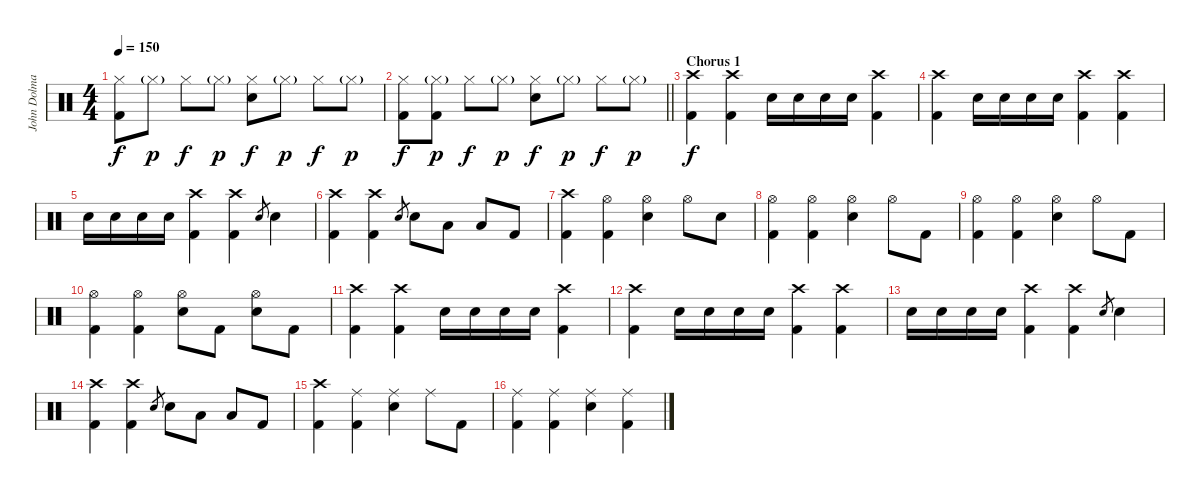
\track ("John Dolmayan(Drums)" "John Dolma") {instrument percussion}
\staff {score}
\articulation defaults
\ts (4 4)
\tempo 150
\clef neutral
\ks c
("Hi-Hat (closed)" "Kick (hit) 2").8{dy f} "Hi-Hat (closed)"{g}.8{dy p} "Hi-Hat (closed)".8{dy f} "Hi-Hat (closed)"{g}.8{dy p} ("Hi-Hat (closed)" "Snare (hit) 2").8{dy f} "Hi-Hat (closed)"{g}.8{dy p} "Hi-Hat (closed)".8{dy f} "Hi-Hat (closed)"{g}.8{dy p} |
\barLineRight lightlight
("Hi-Hat (closed)" "Kick (hit) 2").8{dy f} ("Hi-Hat (closed)"{g} "Kick (hit) 2").8{dy p} "Hi-Hat (closed)".8{dy f} "Hi-Hat (closed)"{g}.8{dy p} ("Hi-Hat (closed)" "Snare (hit) 2").8{dy f} "Hi-Hat (closed)"{g}.8{dy p} "Hi-Hat (closed)".8{dy f} "Hi-Hat (closed)"{g}.8{dy p} |
\section ("" "Chorus 1")
("Crash high (hit)" "Kick (hit) 2").4{dy f} ("Crash high (hit)" "Kick (hit) 2").4 "Snare (hit) 2".16 "Snare (hit) 2".16 "Snare (hit) 2".16 "Snare (hit) 2".16 ("Crash high (hit)" "Kick (hit) 2").4 |
("Crash high (hit)" "Kick (hit) 2").4 "Snare (hit) 2".16 "Snare (hit) 2".16 "Snare (hit) 2".16 "Snare (hit) 2".16 ("Crash high (hit)" "Kick (hit) 2").4 ("Crash high (hit)" "Kick (hit) 2").4 |
"Snare (hit) 2".16 "Snare (hit) 2".16 "Snare (hit) 2".16 "Snare (hit) 2".16 ("Crash high (hit)" "Kick (hit) 2").4 ("Crash high (hit)" "Kick (hit) 2").4 "Snare (hit) 2".8{gr} "Snare (hit) 2".4 |
("Crash high (hit)" "Kick (hit) 2").4 ("Crash high (hit)" "Kick (hit) 2").4 "Snare (hit) 2".8{gr} "Snare (hit) 2".8 "Low Tom (hit)".8 "Low Tom (hit)".8 "Kick (hit) 2".8 |
("Crash high (hit)" "Kick (hit) 2").4 ("Hi-Hat (open)" "Kick (hit) 2").4 ("Hi-Hat (open)" "Snare (hit) 2").4 "Hi-Hat (open)".8 "Snare (hit) 2".8 |
("Hi-Hat (open)" "Kick (hit) 2").4 ("Hi-Hat (open)" "Kick (hit) 2").4 ("Hi-Hat (open)" "Snare (hit) 2").4 "Hi-Hat (open)".8 "Kick (hit) 2".8 |
("Hi-Hat (open)" "Kick (hit) 2").4 ("Hi-Hat (open)" "Kick (hit) 2").4 ("Hi-Hat (open)" "Snare (hit) 2").4 "Hi-Hat (open)".8 "Kick (hit) 2".8 |
("Hi-Hat (open)" "Kick (hit) 2").4 ("Hi-Hat (open)" "Kick (hit) 2").4 ("Hi-Hat (open)" "Snare (hit) 2").8 "Kick (hit) 2".8 ("Hi-Hat (open)" "Snare (hit) 2").8 "Kick (hit) 2".8 |
("Crash high (hit)" "Kick (hit) 2").4 ("Crash high (hit)" "Kick (hit) 2").4 "Snare (hit) 2".16 "Snare (hit) 2".16 "Snare (hit) 2".16 "Snare (hit) 2".16 ("Crash high (hit)" "Kick (hit) 2").4 |
("Crash high (hit)" "Kick (hit) 2").4 "Snare (hit) 2".16 "Snare (hit) 2".16 "Snare (hit) 2".16 "Snare (hit) 2".16 ("Crash high (hit)" "Kick (hit) 2").4 ("Crash high (hit)" "Kick (hit) 2").4 |
"Snare (hit) 2".16 "Snare (hit) 2".16 "Snare (hit) 2".16 "Snare (hit) 2".16 ("Crash high (hit)" "Kick (hit) 2").4 ("Crash high (hit)" "Kick (hit) 2").4 "Snare (hit) 2".8{gr} "Snare (hit) 2".4 |
("Crash high (hit)" "Kick (hit) 2").4 ("Crash high (hit)" "Kick (hit) 2").4 "Snare (hit) 2".8{gr} "Snare (hit) 2".8 "Low Tom (hit)".8 "Low Tom (hit)".8 "Kick (hit) 2".8 |
("Crash high (hit)" "Kick (hit) 2").4 ("Ride (middle)" "Kick (hit) 2").4 ("Ride (middle)" "Snare (hit) 2").4 "Ride (middle)".8 "Kick (hit) 2".8 |
("Ride (middle)" "Kick (hit) 2").4 ("Ride (middle)" "Kick (hit) 2").4 ("Ride (middle)" "Snare (hit) 2").4 ("Ride (middle)" "Kick (hit) 2").4
